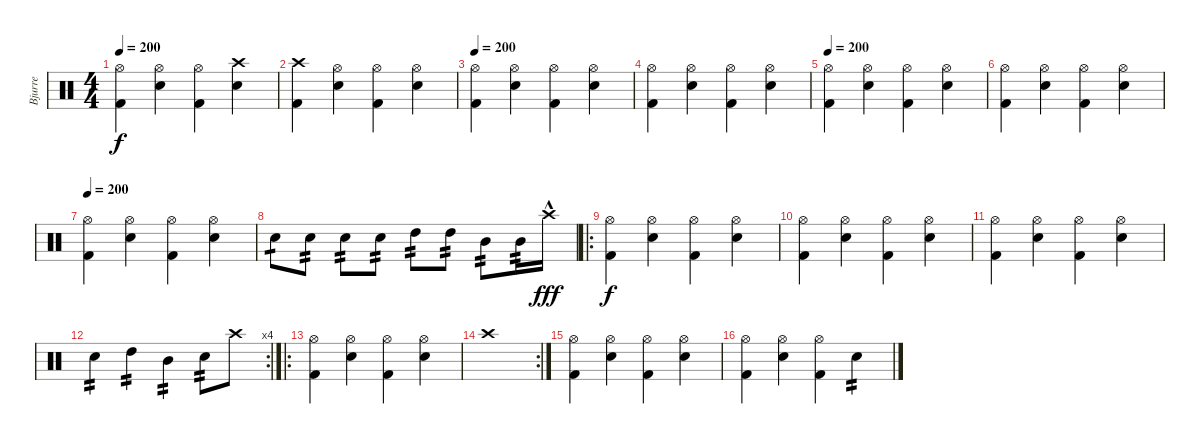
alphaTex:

\track ("Bjurre" "Bjurre") {instrument percussion}
\staff
\articulation defaults
\ts (4 4)
\tempo 200
\clef neutral
\ks c
("Hi-Hat (open)" "Kick (hit) 2").4{dy f} ("Hi-Hat (open)" "Electric Snare (hit)").4 ("Hi-Hat (open)" "Kick (hit) 2").4 ("Crash high (hit)" "Electric Snare (hit)").4 |
("Crash high (hit)" "Kick (hit) 2").4 ("Hi-Hat (open)" "Electric Snare (hit)").4 ("Hi-Hat (open)" "Kick (hit) 2").4 ("Hi-Hat (open)" "Electric Snare (hit)").4 |
\tempo 200
("Hi-Hat (open)" "Kick (hit) 2").4 ("Hi-Hat (open)" "Electric Snare (hit)").4 ("Hi-Hat (open)" "Kick (hit) 2").4 ("Hi-Hat (open)" "Electric Snare (hit)").4 |
("Hi-Hat (open)" "Kick (hit) 2").4 ("Hi-Hat (open)" "Electric Snare (hit)").4 ("Hi-Hat (open)" "Kick (hit) 2").4 ("Hi-Hat (open)" "Electric Snare (hit)").4 |
\tempo 200
("Hi-Hat (open)" "Kick (hit) 2").4 ("Hi-Hat (open)" "Electric Snare (hit)").4 ("Hi-Hat (open)" "Kick (hit) 2").4 ("Hi-Hat (open)" "Electric Snare (hit)").4 |
("Hi-Hat (open)" "Kick (hit) 2").4 ("Hi-Hat (open)" "Electric Snare (hit)").4 ("Hi-Hat (open)" "Kick (hit) 2").4 ("Hi-Hat (open)" "Electric Snare (hit)").4 |
\tempo 200
("Hi-Hat (open)" "Kick (hit) 2").4 ("Hi-Hat (open)" "Electric Snare (hit)").4 ("Hi-Hat (open)" "Kick (hit) 2").4 ("Hi-Hat (open)" "Electric Snare (hit)").4 |
"Electric Snare (hit)".8{tp 1} "Electric Snare (hit)".8{tp 2} "Electric Snare (hit)".8{tp 2} "Electric Snare (hit)".8{tp 2} "High Tom (hit)".8{tp 2} "High Tom (hit)".8{tp 2} "Mid Tom (hit)".8{tp 2} "Mid Tom (hit)".16{tp 2} "Crash high (hit)"{hac}.16{dy fff} |
\ro
("Hi-Hat (open)" "Kick (hit) 2").4{dy f} ("Hi-Hat (open)" "Electric Snare (hit)").4 ("Hi-Hat (open)" "Kick (hit) 2").4 ("Hi-Hat (open)" "Electric Snare (hit)").4 |
("Hi-Hat (open)" "Kick (hit) 2").4 ("Hi-Hat (open)" "Electric Snare (hit)").4 ("Hi-Hat (open)" "Kick (hit) 2").4 ("Hi-Hat (open)" "Electric Snare (hit)").4 |
("Hi-Hat (open)" "Kick (hit) 2").4 ("Hi-Hat (open)" "Electric Snare (hit)").4 ("Hi-Hat (open)" "Kick (hit) 2").4 ("Hi-Hat (open)" "Electric Snare (hit)").4 |
\rc 4 "Electric Snare (hit)".4{tp 2} "High Tom (hit)".4{tp 2} "Mid Tom (hit)".4{tp 2} "Electric Snare (hit)".8{tp 2} "Crash high (hit)".8
|
\ro
("Hi-Hat (open)" "Kick (hit) 2").4 ("Hi-Hat (open)" "Electric Snare (hit)").4 ("Hi-Hat (open)" "Kick (hit) 2").4 ("Hi-Hat (open)" "Electric Snare (hit)").4 |
\rc 2 "Crash high (hit)".1
|
("Hi-Hat (open)" "Kick (hit) 2").4 ("Hi-Hat (open)" "Electric Snare (hit)").4 ("Hi-Hat (open)" "Kick (hit) 2").4 ("Hi-Hat (open)" "Electric Snare (hit)").4 |
("Hi-Hat (open)" "Kick (hit) 2").4 ("Hi-Hat (open)" "Electric Snare (hit)").4 ("Hi-Hat (open)" "Kick (hit) 2").4 "Electric Snare (hit)".4{tp 2}
